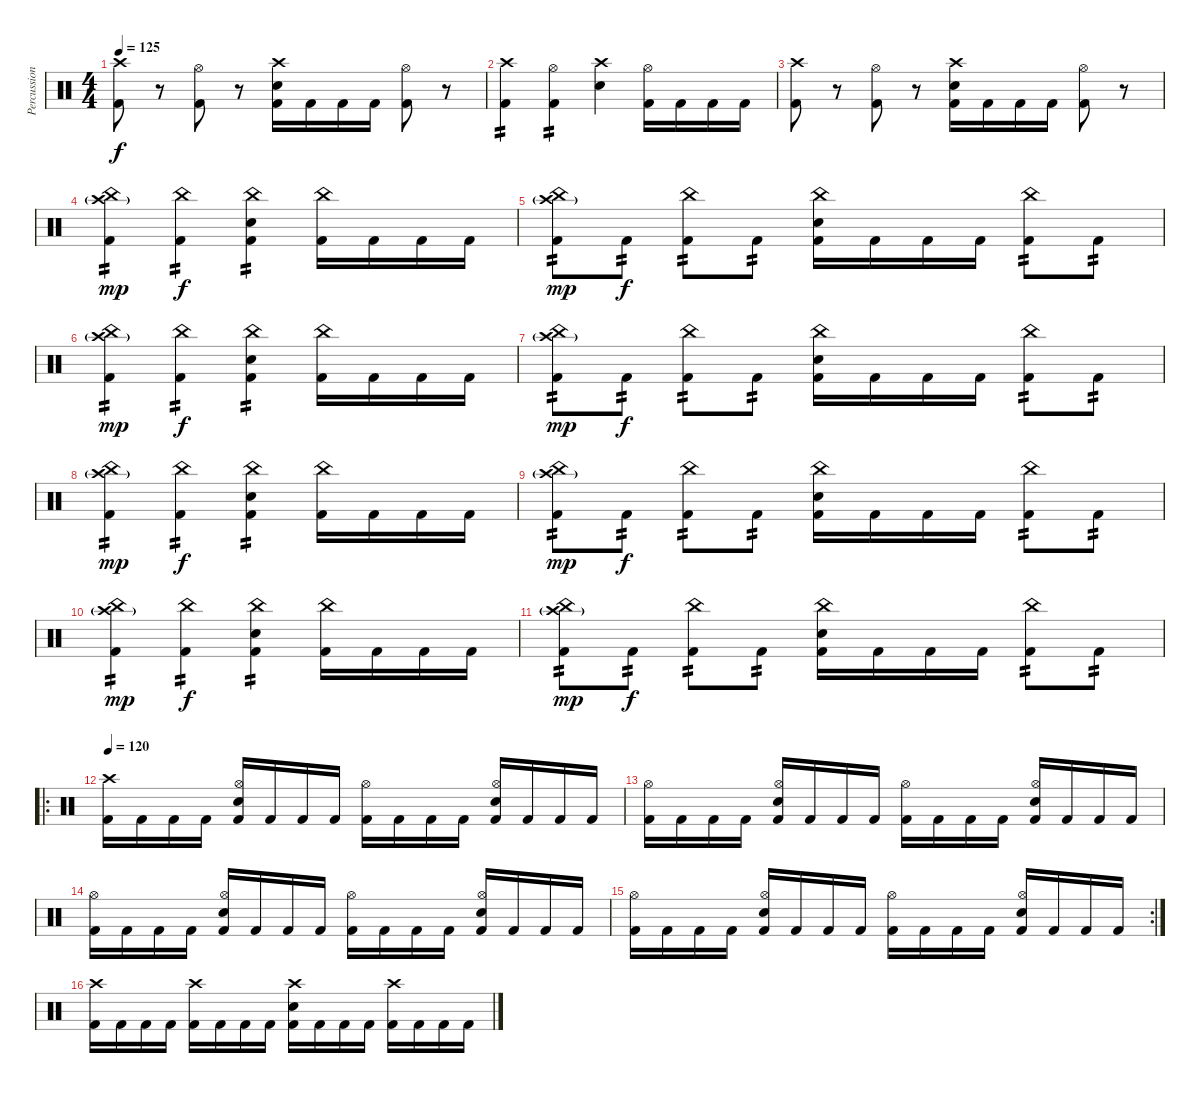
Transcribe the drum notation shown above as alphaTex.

\track ("Percussion" "Percussion") {instrument percussion}
\staff {score}
\articulation defaults
\ts (4 4)
\tempo 125
\clef neutral
\ks c
("Crash high (hit)" "Kick (hit) 2").8{dy f} r.8 ("Hi-Hat (open)" "Kick (hit) 2").8 r.8 ("Crash high (hit)" "Electric Snare (hit)" "Kick (hit) 2").16 "Kick (hit) 2".16 "Kick (hit) 2".16 "Kick (hit) 2".16 ("Hi-Hat (open)" "Kick (hit) 2").8 r.8 |
("Crash high (hit)" "Kick (hit) 2").4{tp 2} ("Hi-Hat (open)" "Kick (hit) 2").4{tp 2} ("Crash high (hit)" "Electric Snare (hit)").4 ("Hi-Hat (open)" "Kick (hit) 2").16 "Kick (hit) 2".16 "Kick (hit) 2".16 "Kick (hit) 2".16 |
("Crash high (hit)" "Kick (hit) 2").8 r.8 ("Hi-Hat (open)" "Kick (hit) 2").8 r.8 ("Crash high (hit)" "Electric Snare (hit)" "Kick (hit) 2").16 "Kick (hit) 2".16 "Kick (hit) 2".16 "Kick (hit) 2".16 ("Hi-Hat (open)" "Kick (hit) 2").8 r.8 |
("Crash high (hit)"{g} "China (hit)" "Kick (hit) 2").4{tp 2 dy mp} ("China (hit)" "Kick (hit) 2").4{tp 2 dy f} ("China (hit)" "Electric Snare (hit)" "Kick (hit) 2").4{tp 2} ("China (hit)" "Kick (hit) 2").16 "Kick (hit) 2".16 "Kick (hit) 2".16 "Kick (hit) 2".16 |
("Crash high (hit)"{g} "China (hit)" "Kick (hit) 2").8{tp 2 dy mp} "Kick (hit) 2".8{tp 2 dy f} ("China (hit)" "Kick (hit) 2").8{tp 2} "Kick (hit) 2".8{tp 2} ("China (hit)" "Electric Snare (hit)" "Kick (hit) 2").16 "Kick (hit) 2".16 "Kick (hit) 2".16 "Kick (hit) 2".16 ("China (hit)" "Kick (hit) 2").8{tp 2} "Kick (hit) 2".8{tp 2} |
("Crash high (hit)"{g} "China (hit)" "Kick (hit) 2").4{tp 2 dy mp} ("China (hit)" "Kick (hit) 2").4{tp 2 dy f} ("China (hit)" "Electric Snare (hit)" "Kick (hit) 2").4{tp 2} ("China (hit)" "Kick (hit) 2").16 "Kick (hit) 2".16 "Kick (hit) 2".16 "Kick (hit) 2".16 |
("Crash high (hit)"{g} "China (hit)" "Kick (hit) 2").8{tp 2 dy mp} "Kick (hit) 2".8{tp 2 dy f} ("China (hit)" "Kick (hit) 2").8{tp 2} "Kick (hit) 2".8{tp 2} ("China (hit)" "Electric Snare (hit)" "Kick (hit) 2").16 "Kick (hit) 2".16 "Kick (hit) 2".16 "Kick (hit) 2".16 ("China (hit)" "Kick (hit) 2").8{tp 2} "Kick (hit) 2".8{tp 2} |
("Crash high (hit)"{g} "China (hit)" "Kick (hit) 2").4{tp 2 dy mp} ("China (hit)" "Kick (hit) 2").4{tp 2 dy f} ("China (hit)" "Electric Snare (hit)" "Kick (hit) 2").4{tp 2} ("China (hit)" "Kick (hit) 2").16 "Kick (hit) 2".16 "Kick (hit) 2".16 "Kick (hit) 2".16 |
("Crash high (hit)"{g} "China (hit)" "Kick (hit) 2").8{tp 2 dy mp} "Kick (hit) 2".8{tp 2 dy f} ("China (hit)" "Kick (hit) 2").8{tp 2} "Kick (hit) 2".8{tp 2} ("China (hit)" "Electric Snare (hit)" "Kick (hit) 2").16 "Kick (hit) 2".16 "Kick (hit) 2".16 "Kick (hit) 2".16 ("China (hit)" "Kick (hit) 2").8{tp 2} "Kick (hit) 2".8{tp 2} |
("Crash high (hit)"{g} "China (hit)" "Kick (hit) 2").4{tp 2 dy mp} ("China (hit)" "Kick (hit) 2").4{tp 2 dy f} ("China (hit)" "Electric Snare (hit)" "Kick (hit) 2").4{tp 2} ("China (hit)" "Kick (hit) 2").16 "Kick (hit) 2".16 "Kick (hit) 2".16 "Kick (hit) 2".16 |
("Crash high (hit)"{g} "China (hit)" "Kick (hit) 2").8{tp 2 dy mp} "Kick (hit) 2".8{tp 2 dy f} ("China (hit)" "Kick (hit) 2").8{tp 2} "Kick (hit) 2".8{tp 2} ("China (hit)" "Electric Snare (hit)" "Kick (hit) 2").16 "Kick (hit) 2".16 "Kick (hit) 2".16 "Kick (hit) 2".16 ("China (hit)" "Kick (hit) 2").8{tp 2} "Kick (hit) 2".8{tp 2} |
\ro
\tempo 120
("Crash high (hit)" "Kick (hit) 2").16 "Kick (hit) 2".16 "Kick (hit) 2".16 "Kick (hit) 2".16 ("Hi-Hat (open)" "Electric Snare (hit)" "Kick (hit) 2").16 "Kick (hit) 2".16 "Kick (hit) 2".16 "Kick (hit) 2".16 ("Hi-Hat (open)" "Kick (hit) 2").16 "Kick (hit) 2".16 "Kick (hit) 2".16 "Kick (hit) 2".16 ("Hi-Hat (open)" "Electric Snare (hit)" "Kick (hit) 2").16 "Kick (hit) 2".16 "Kick (hit) 2".16 "Kick (hit) 2".16 |
("Hi-Hat (open)" "Kick (hit) 2").16 "Kick (hit) 2".16 "Kick (hit) 2".16 "Kick (hit) 2".16 ("Hi-Hat (open)" "Electric Snare (hit)" "Kick (hit) 2").16 "Kick (hit) 2".16 "Kick (hit) 2".16 "Kick (hit) 2".16 ("Hi-Hat (open)" "Kick (hit) 2").16 "Kick (hit) 2".16 "Kick (hit) 2".16 "Kick (hit) 2".16 ("Hi-Hat (open)" "Electric Snare (hit)" "Kick (hit) 2").16 "Kick (hit) 2".16 "Kick (hit) 2".16 "Kick (hit) 2".16 |
("Hi-Hat (open)" "Kick (hit) 2").16 "Kick (hit) 2".16 "Kick (hit) 2".16 "Kick (hit) 2".16 ("Hi-Hat (open)" "Electric Snare (hit)" "Kick (hit) 2").16 "Kick (hit) 2".16 "Kick (hit) 2".16 "Kick (hit) 2".16 ("Hi-Hat (open)" "Kick (hit) 2").16 "Kick (hit) 2".16 "Kick (hit) 2".16 "Kick (hit) 2".16 ("Hi-Hat (open)" "Electric Snare (hit)" "Kick (hit) 2").16 "Kick (hit) 2".16 "Kick (hit) 2".16 "Kick (hit) 2".16 |
\rc 2
("Hi-Hat (open)" "Kick (hit) 2").16 "Kick (hit) 2".16 "Kick (hit) 2".16 "Kick (hit) 2".16 ("Hi-Hat (open)" "Electric Snare (hit)" "Kick (hit) 2").16 "Kick (hit) 2".16 "Kick (hit) 2".16 "Kick (hit) 2".16 ("Hi-Hat (open)" "Kick (hit) 2").16 "Kick (hit) 2".16 "Kick (hit) 2".16 "Kick (hit) 2".16 ("Hi-Hat (open)" "Electric Snare (hit)" "Kick (hit) 2").16 "Kick (hit) 2".16 "Kick (hit) 2".16 "Kick (hit) 2".16 |
("Crash high (hit)" "Kick (hit) 2").16 "Kick (hit) 2".16 "Kick (hit) 2".16 "Kick (hit) 2".16 ("Crash high (hit)" "Kick (hit) 2").16 "Kick (hit) 2".16 "Kick (hit) 2".16 "Kick (hit) 2".16 ("Crash high (hit)" "Electric Snare (hit)" "Kick (hit) 2").16 "Kick (hit) 2".16 "Kick (hit) 2".16 "Kick (hit) 2".16 ("Crash high (hit)" "Kick (hit) 2").16 "Kick (hit) 2".16 "Kick (hit) 2".16 "Kick (hit) 2".16
